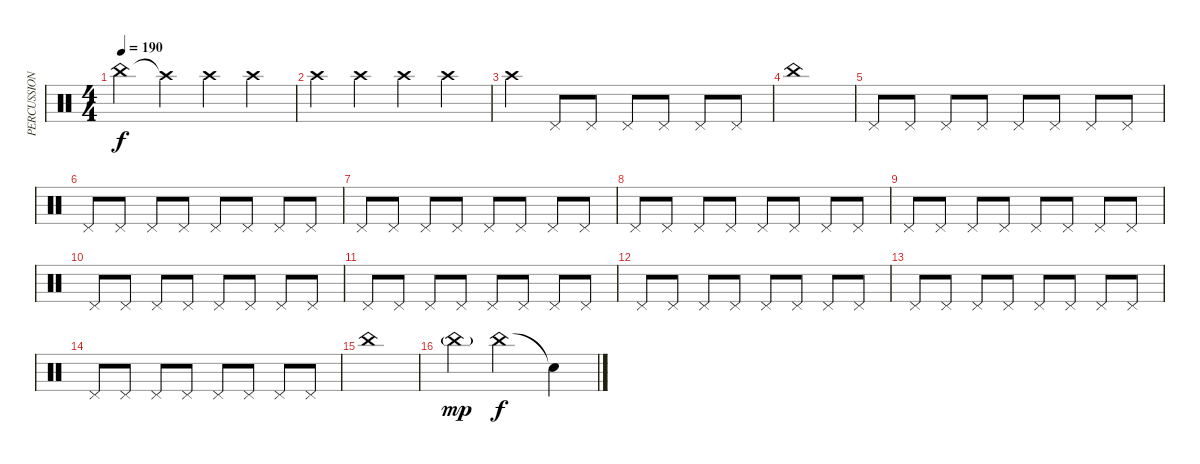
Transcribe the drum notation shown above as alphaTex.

\track ("PERCUSSION" "PERCUSSION") {instrument percussion}
\staff {score}
\articulation defaults
\ts (4 4)
\tempo 190
\clef neutral
\ks c "China (hit)".4{dy f} "Crash high (hit)"{t}.4 "Crash high (hit)".4 "Crash high (hit)".4
|
"Crash high (hit)".4 "Crash high (hit)".4 "Crash high (hit)".4 "Crash high (hit)".4 |
"Crash high (hit)".4 "Pedal Hi-Hat (hit)".8 "Pedal Hi-Hat (hit)".8 "Pedal Hi-Hat (hit)".8 "Pedal Hi-Hat (hit)".8 "Pedal Hi-Hat (hit)".8 "Pedal Hi-Hat (hit)".8 |
"China (hit)".1 |
"Pedal Hi-Hat (hit)".8 "Pedal Hi-Hat (hit)".8 "Pedal Hi-Hat (hit)".8 "Pedal Hi-Hat (hit)".8 "Pedal Hi-Hat (hit)".8 "Pedal Hi-Hat (hit)".8 "Pedal Hi-Hat (hit)".8 "Pedal Hi-Hat (hit)".8 |
"Pedal Hi-Hat (hit)".8 "Pedal Hi-Hat (hit)".8 "Pedal Hi-Hat (hit)".8 "Pedal Hi-Hat (hit)".8 "Pedal Hi-Hat (hit)".8 "Pedal Hi-Hat (hit)".8 "Pedal Hi-Hat (hit)".8 "Pedal Hi-Hat (hit)".8 |
"Pedal Hi-Hat (hit)".8 "Pedal Hi-Hat (hit)".8 "Pedal Hi-Hat (hit)".8 "Pedal Hi-Hat (hit)".8 "Pedal Hi-Hat (hit)".8 "Pedal Hi-Hat (hit)".8 "Pedal Hi-Hat (hit)".8 "Pedal Hi-Hat (hit)".8 |
"Pedal Hi-Hat (hit)".8 "Pedal Hi-Hat (hit)".8 "Pedal Hi-Hat (hit)".8 "Pedal Hi-Hat (hit)".8 "Pedal Hi-Hat (hit)".8 "Pedal Hi-Hat (hit)".8 "Pedal Hi-Hat (hit)".8 "Pedal Hi-Hat (hit)".8 |
"Pedal Hi-Hat (hit)".8 "Pedal Hi-Hat (hit)".8 "Pedal Hi-Hat (hit)".8 "Pedal Hi-Hat (hit)".8 "Pedal Hi-Hat (hit)".8 "Pedal Hi-Hat (hit)".8 "Pedal Hi-Hat (hit)".8 "Pedal Hi-Hat (hit)".8 |
"Pedal Hi-Hat (hit)".8 "Pedal Hi-Hat (hit)".8 "Pedal Hi-Hat (hit)".8 "Pedal Hi-Hat (hit)".8 "Pedal Hi-Hat (hit)".8 "Pedal Hi-Hat (hit)".8 "Pedal Hi-Hat (hit)".8 "Pedal Hi-Hat (hit)".8 |
"Pedal Hi-Hat (hit)".8 "Pedal Hi-Hat (hit)".8 "Pedal Hi-Hat (hit)".8 "Pedal Hi-Hat (hit)".8 "Pedal Hi-Hat (hit)".8 "Pedal Hi-Hat (hit)".8 "Pedal Hi-Hat (hit)".8 "Pedal Hi-Hat (hit)".8 |
"Pedal Hi-Hat (hit)".8 "Pedal Hi-Hat (hit)".8 "Pedal Hi-Hat (hit)".8 "Pedal Hi-Hat (hit)".8 "Pedal Hi-Hat (hit)".8 "Pedal Hi-Hat (hit)".8 "Pedal Hi-Hat (hit)".8 "Pedal Hi-Hat (hit)".8 |
"Pedal Hi-Hat (hit)".8 "Pedal Hi-Hat (hit)".8 "Pedal Hi-Hat (hit)".8 "Pedal Hi-Hat (hit)".8 "Pedal Hi-Hat (hit)".8 "Pedal Hi-Hat (hit)".8 "Pedal Hi-Hat (hit)".8 "Pedal Hi-Hat (hit)".8 |
"Pedal Hi-Hat (hit)".8 "Pedal Hi-Hat (hit)".8 "Pedal Hi-Hat (hit)".8 "Pedal Hi-Hat (hit)".8 "Pedal Hi-Hat (hit)".8 "Pedal Hi-Hat (hit)".8 "Pedal Hi-Hat (hit)".8 "Pedal Hi-Hat (hit)".8 |
"China (hit)".1 |
"China (hit)"{g}.4{dy mp} "China (hit)".2{dy f} "Snare (hit)"{t}.4
